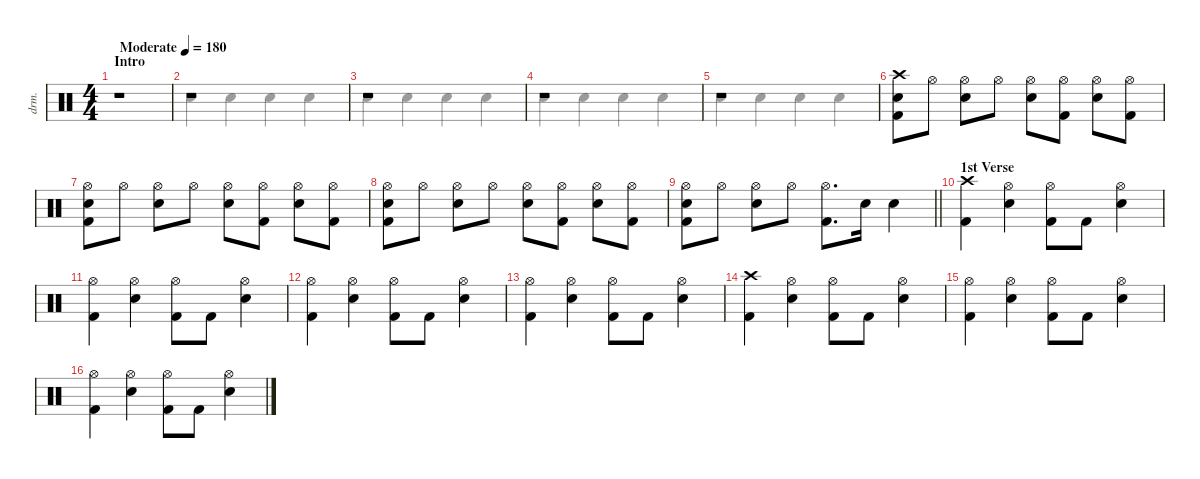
\defaultSystemsLayout 4
\hideDynamics
\bracketExtendMode nobrackets
\otherSystemsTrackNameOrientation horizontal
\track ("Drums: Ritsu Tainaka" "drm.") {instrument percussion}
\staff {score}
\articulation defaults
\voice
\ts (4 4)
\beaming (8 2 2 2 2)
\section ("" "Intro")
\tempo (180 "Moderate")
\clef neutral
\ks c
r.1{dy f beam Down} |
r.1{beam Up} |
r.1{beam Up} |
r.1{beam Up} |
r.1{beam Up} |
("Crash high (hit)" "Snare (hit) 2" "Kick (hit) 2").8{beam Down} "Hi-Hat (open)".8{beam Down} ("Hi-Hat (open)" "Snare (hit) 2").8{beam Down} "Hi-Hat (open)".8{beam Down} ("Hi-Hat (open)" "Snare (hit) 2").8{beam Down} ("Hi-Hat (open)" "Kick (hit) 2").8{beam Down} ("Hi-Hat (open)" "Snare (hit) 2").8{beam Down} ("Hi-Hat (open)" "Kick (hit) 2").8{beam Down} |
("Hi-Hat (open)" "Snare (hit) 2" "Kick (hit) 2").8{beam Down} "Hi-Hat (open)".8{beam Down} ("Hi-Hat (open)" "Snare (hit) 2").8{beam Down} "Hi-Hat (open)".8{beam Down} ("Hi-Hat (open)" "Snare (hit) 2").8{beam Down} ("Hi-Hat (open)" "Kick (hit) 2").8{beam Down} ("Hi-Hat (open)" "Snare (hit) 2").8{beam Down} ("Hi-Hat (open)" "Kick (hit) 2").8{beam Down} |
("Hi-Hat (open)" "Snare (hit) 2" "Kick (hit) 2").8{beam Down} "Hi-Hat (open)".8{beam Down} ("Hi-Hat (open)" "Snare (hit) 2").8{beam Down} "Hi-Hat (open)".8{beam Down} ("Hi-Hat (open)" "Snare (hit) 2").8{beam Down} ("Hi-Hat (open)" "Kick (hit) 2").8{beam Down} ("Hi-Hat (open)" "Snare (hit) 2").8{beam Down} ("Hi-Hat (open)" "Kick (hit) 2").8{beam Down} |
\barLineRight lightlight
("Hi-Hat (open)" "Snare (hit) 2" "Kick (hit) 2").8{beam Down} "Hi-Hat (open)".8{beam Down} ("Hi-Hat (open)" "Snare (hit) 2").8{beam Down} "Hi-Hat (open)".8{beam Down} ("Hi-Hat (open)" "Kick (hit) 2").8{d beam Down} "Snare (hit) 2".16{beam Down} "Snare (hit) 2".4{beam Down} |
\section ("" "1st Verse")
("Crash high (hit)" "Kick (hit) 2").4{beam Down} ("Hi-Hat (open)" "Snare (hit) 2").4{beam Down} ("Hi-Hat (open)" "Kick (hit) 2").8{beam Down} "Kick (hit) 2".8{beam Down} ("Hi-Hat (open)" "Snare (hit) 2").4{beam Down} |
("Hi-Hat (open)" "Kick (hit) 2").4{beam Down} ("Hi-Hat (open)" "Snare (hit) 2").4{beam Down} ("Hi-Hat (open)" "Kick (hit) 2").8{beam Down} "Kick (hit) 2".8{beam Down} ("Hi-Hat (open)" "Snare (hit) 2").4{beam Down} |
("Hi-Hat (open)" "Kick (hit) 2").4{beam Down} ("Hi-Hat (open)" "Snare (hit) 2").4{beam Down} ("Hi-Hat (open)" "Kick (hit) 2").8{beam Down} "Kick (hit) 2".8{beam Down} ("Hi-Hat (open)" "Snare (hit) 2").4{beam Down} |
("Hi-Hat (open)" "Kick (hit) 2").4{beam Down} ("Hi-Hat (open)" "Snare (hit) 2").4{beam Down} ("Hi-Hat (open)" "Kick (hit) 2").8{beam Down} "Kick (hit) 2".8{beam Down} ("Hi-Hat (open)" "Snare (hit) 2").4{beam Down} |
("Crash high (hit)" "Kick (hit) 2").4{beam Down} ("Hi-Hat (open)" "Snare (hit) 2").4{beam Down} ("Hi-Hat (open)" "Kick (hit) 2").8{beam Down} "Kick (hit) 2".8{beam Down} ("Hi-Hat (open)" "Snare (hit) 2").4{beam Down} |
("Hi-Hat (open)" "Kick (hit) 2").4{beam Down} ("Hi-Hat (open)" "Snare (hit) 2").4{beam Down} ("Hi-Hat (open)" "Kick (hit) 2").8{beam Down} "Kick (hit) 2".8{beam Down} ("Hi-Hat (open)" "Snare (hit) 2").4{beam Down} |
("Hi-Hat (open)" "Kick (hit) 2").4{beam Down} ("Hi-Hat (open)" "Snare (hit) 2").4{beam Down} ("Hi-Hat (open)" "Kick (hit) 2").8{beam Down} "Kick (hit) 2".8{beam Down} ("Hi-Hat (open)" "Snare (hit) 2").4{beam Down}
\voice
\clef neutral
\ottava regular
\simile none
\ks c
|
"Hand Clap (hit)".4{beam Down} "Hand Clap (hit)".4{beam Down} "Hand Clap (hit)".4{beam Down} "Hand Clap (hit)".4{beam Down} |
"Hand Clap (hit)".4{beam Down} "Hand Clap (hit)".4{beam Down} "Hand Clap (hit)".4{beam Down} "Hand Clap (hit)".4{beam Down} |
"Hand Clap (hit)".4{beam Down} "Hand Clap (hit)".4{beam Down} "Hand Clap (hit)".4{beam Down} "Hand Clap (hit)".4{beam Down} |
"Hand Clap (hit)".4{beam Down} "Hand Clap (hit)".4{beam Down} "Hand Clap (hit)".4{beam Down} "Hand Clap (hit)".4{beam Down} |
|
|
|
\barLineRight lightlight
|
|
|
|
|
|
|
